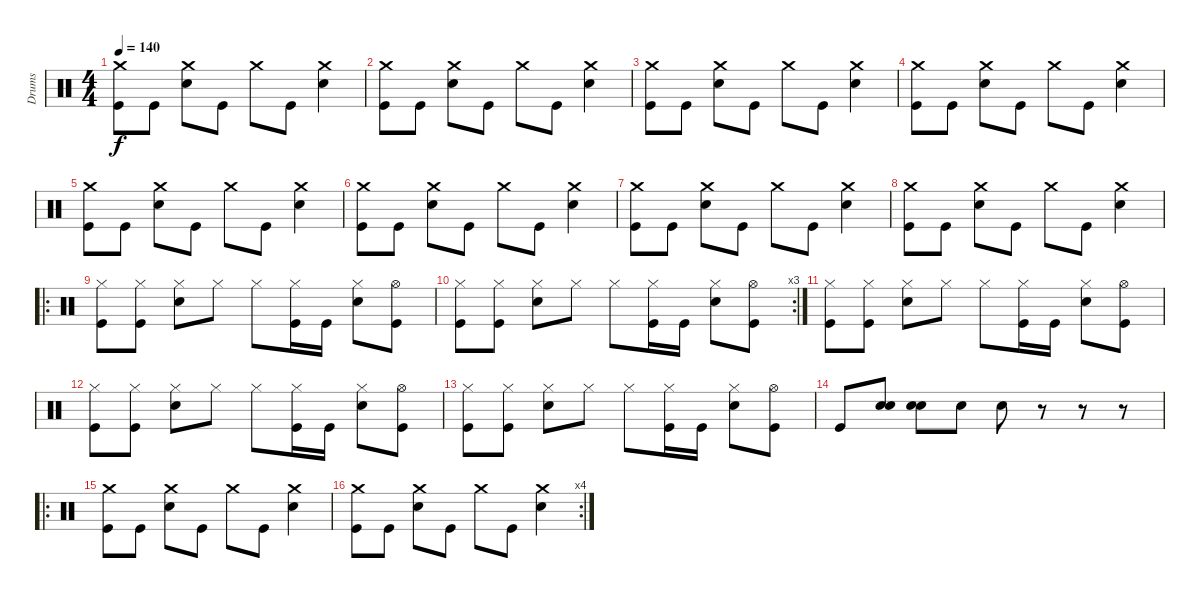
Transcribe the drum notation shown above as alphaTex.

\track ("Drums" "Drums") {instrument percussion}
\staff {score}
\articulation defaults
\ts (4 4)
\tempo 140
\clef neutral
\ks c
("Crash medium (hit)" "Kick (hit)").8{dy f} "Kick (hit)".8 ("Crash medium (hit)" "Snare (hit) 2").8 "Kick (hit)".8 "Crash medium (hit)".8 "Kick (hit)".8 ("Crash medium (hit)" "Snare (hit) 2").4 |
("Crash medium (hit)" "Kick (hit)").8 "Kick (hit)".8 ("Crash medium (hit)" "Snare (hit) 2").8 "Kick (hit)".8 "Crash medium (hit)".8 "Kick (hit)".8 ("Crash medium (hit)" "Snare (hit) 2").4 |
("Crash medium (hit)" "Kick (hit)").8 "Kick (hit)".8 ("Crash medium (hit)" "Snare (hit) 2").8 "Kick (hit)".8 "Crash medium (hit)".8 "Kick (hit)".8 ("Crash medium (hit)" "Snare (hit) 2").4 |
("Crash medium (hit)" "Kick (hit)").8 "Kick (hit)".8 ("Crash medium (hit)" "Snare (hit) 2").8 "Kick (hit)".8 "Crash medium (hit)".8 "Kick (hit)".8 ("Crash medium (hit)" "Snare (hit) 2").4 |
("Crash medium (hit)" "Kick (hit)").8 "Kick (hit)".8 ("Crash medium (hit)" "Snare (hit) 2").8 "Kick (hit)".8 "Crash medium (hit)".8 "Kick (hit)".8 ("Crash medium (hit)" "Snare (hit) 2").4 |
("Crash medium (hit)" "Kick (hit)").8 "Kick (hit)".8 ("Crash medium (hit)" "Snare (hit) 2").8 "Kick (hit)".8 "Crash medium (hit)".8 "Kick (hit)".8 ("Crash medium (hit)" "Snare (hit) 2").4 |
("Crash medium (hit)" "Kick (hit)").8 "Kick (hit)".8 ("Crash medium (hit)" "Snare (hit) 2").8 "Kick (hit)".8 "Crash medium (hit)".8 "Kick (hit)".8 ("Crash medium (hit)" "Snare (hit) 2").4 |
("Crash medium (hit)" "Kick (hit)").8 "Kick (hit)".8 ("Crash medium (hit)" "Snare (hit) 2").8 "Kick (hit)".8 "Crash medium (hit)".8 "Kick (hit)".8 ("Crash medium (hit)" "Snare (hit) 2").4 |
\ro
("Hi-Hat (closed)" "Kick (hit)").8 ("Hi-Hat (closed)" "Kick (hit)").8 ("Hi-Hat (closed)" "Snare (hit) 2").8 "Hi-Hat (closed)".8 "Hi-Hat (closed)".8 ("Hi-Hat (closed)" "Kick (hit)").16 "Kick (hit)".16 ("Hi-Hat (closed)" "Snare (hit) 2").8 ("Hi-Hat (open)" "Kick (hit)").8 |
\rc 3
("Hi-Hat (closed)" "Kick (hit)").8 ("Hi-Hat (closed)" "Kick (hit)").8 ("Hi-Hat (closed)" "Snare (hit) 2").8 "Hi-Hat (closed)".8 "Hi-Hat (closed)".8 ("Hi-Hat (closed)" "Kick (hit)").16 "Kick (hit)".16 ("Hi-Hat (closed)" "Snare (hit) 2").8 ("Hi-Hat (open)" "Kick (hit)").8 |
("Hi-Hat (closed)" "Kick (hit)").8 ("Hi-Hat (closed)" "Kick (hit)").8 ("Hi-Hat (closed)" "Snare (hit) 2").8 "Hi-Hat (closed)".8 "Hi-Hat (closed)".8 ("Hi-Hat (closed)" "Kick (hit)").16 "Kick (hit)".16 ("Hi-Hat (closed)" "Snare (hit) 2").8 ("Hi-Hat (open)" "Kick (hit)").8 |
("Hi-Hat (closed)" "Kick (hit)").8 ("Hi-Hat (closed)" "Kick (hit)").8 ("Hi-Hat (closed)" "Snare (hit) 2").8 "Hi-Hat (closed)".8 "Hi-Hat (closed)".8 ("Hi-Hat (closed)" "Kick (hit)").16 "Kick (hit)".16 ("Hi-Hat (closed)" "Snare (hit) 2").8 ("Hi-Hat (open)" "Kick (hit)").8 |
("Hi-Hat (closed)" "Kick (hit)").8 ("Hi-Hat (closed)" "Kick (hit)").8 ("Hi-Hat (closed)" "Snare (hit) 2").8 "Hi-Hat (closed)".8 "Hi-Hat (closed)".8 ("Hi-Hat (closed)" "Kick (hit)").16 "Kick (hit)".16 ("Hi-Hat (closed)" "Snare (hit) 2").8 ("Hi-Hat (open)" "Kick (hit)").8 |
"Kick (hit)".8 ("Electric Snare (hit)" "Snare (hit) 2").8 ("Electric Snare (hit)" "Snare (hit) 2").8 "Snare (hit) 2".8 "Snare (hit) 2".8 r.8 r.8 r.8 |
\ro
("Crash medium (hit)" "Kick (hit)").8 "Kick (hit)".8 ("Crash medium (hit)" "Snare (hit) 2").8 "Kick (hit)".8 "Crash medium (hit)".8 "Kick (hit)".8 ("Crash medium (hit)" "Snare (hit) 2").4 |
\rc 4
("Crash medium (hit)" "Kick (hit)").8 "Kick (hit)".8 ("Crash medium (hit)" "Snare (hit) 2").8 "Kick (hit)".8 "Crash medium (hit)".8 "Kick (hit)".8 ("Crash medium (hit)" "Snare (hit) 2").4
